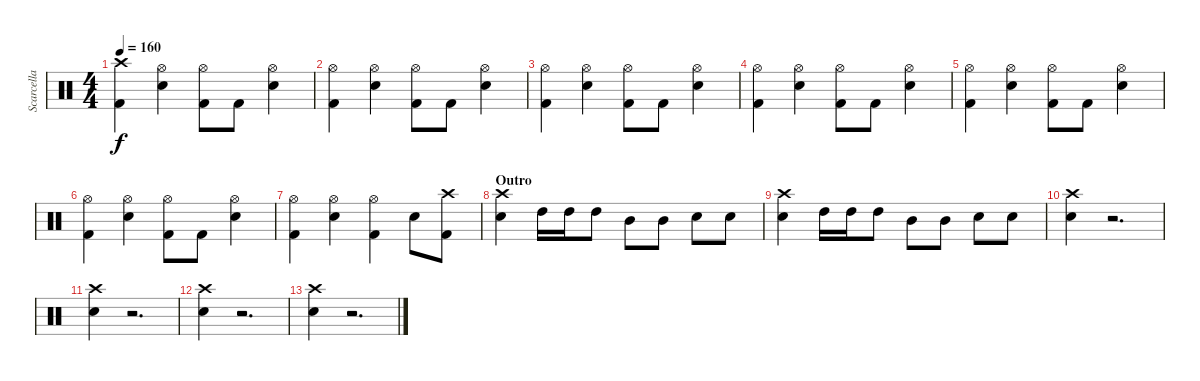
\track ("Scarcella" "Scarcella") {instrument percussion}
\staff {score}
\articulation defaults
\ts (4 4)
\tempo 160
\clef neutral
\ks c
("Crash high (hit)" "Kick (hit) 2").4{dy f} ("Hi-Hat (open)" "Snare (hit) 2").4 ("Hi-Hat (open)" "Kick (hit) 2").8 "Kick (hit) 2".8 ("Hi-Hat (open)" "Snare (hit) 2").4 |
("Hi-Hat (open)" "Kick (hit) 2").4 ("Hi-Hat (open)" "Snare (hit) 2").4 ("Hi-Hat (open)" "Kick (hit) 2").8 "Kick (hit) 2".8 ("Hi-Hat (open)" "Snare (hit) 2").4 |
("Hi-Hat (open)" "Kick (hit) 2").4 ("Hi-Hat (open)" "Snare (hit) 2").4 ("Hi-Hat (open)" "Kick (hit) 2").8 "Kick (hit) 2".8 ("Hi-Hat (open)" "Snare (hit) 2").4 |
("Hi-Hat (open)" "Kick (hit) 2").4 ("Hi-Hat (open)" "Snare (hit) 2").4 ("Hi-Hat (open)" "Kick (hit) 2").8 "Kick (hit) 2".8 ("Hi-Hat (open)" "Snare (hit) 2").4 |
("Hi-Hat (open)" "Kick (hit) 2").4 ("Hi-Hat (open)" "Snare (hit) 2").4 ("Hi-Hat (open)" "Kick (hit) 2").8 "Kick (hit) 2".8 ("Hi-Hat (open)" "Snare (hit) 2").4 |
("Hi-Hat (open)" "Kick (hit) 2").4 ("Hi-Hat (open)" "Snare (hit) 2").4 ("Hi-Hat (open)" "Kick (hit) 2").8 "Kick (hit) 2".8 ("Hi-Hat (open)" "Snare (hit) 2").4 |
("Hi-Hat (open)" "Kick (hit) 2").4 ("Hi-Hat (open)" "Snare (hit) 2").4 ("Hi-Hat (open)" "Kick (hit) 2").4 "Snare (hit) 2".8 ("Crash high (hit)" "Kick (hit) 2").8 |
\section ("" "Outro")
("Crash high (hit)" "Snare (hit) 2").4 "High Tom (hit)".16 "High Tom (hit)".16 "High Tom (hit)".8 "Mid Tom (hit)".8 "Mid Tom (hit)".8 "Snare (hit) 2".8 "Snare (hit) 2".8 |
("Crash high (hit)" "Snare (hit) 2").4 "High Tom (hit)".16 "High Tom (hit)".16 "High Tom (hit)".8 "Mid Tom (hit)".8 "Mid Tom (hit)".8 "Snare (hit) 2".8 "Snare (hit) 2".8 |
("Crash high (hit)" "Snare (hit) 2").4 r.2{d} |
("Crash high (hit)" "Snare (hit) 2").4 r.2{d} |
("Crash high (hit)" "Snare (hit) 2").4 r.2{d} |
("Crash high (hit)" "Snare (hit) 2").4 r.2{d}
